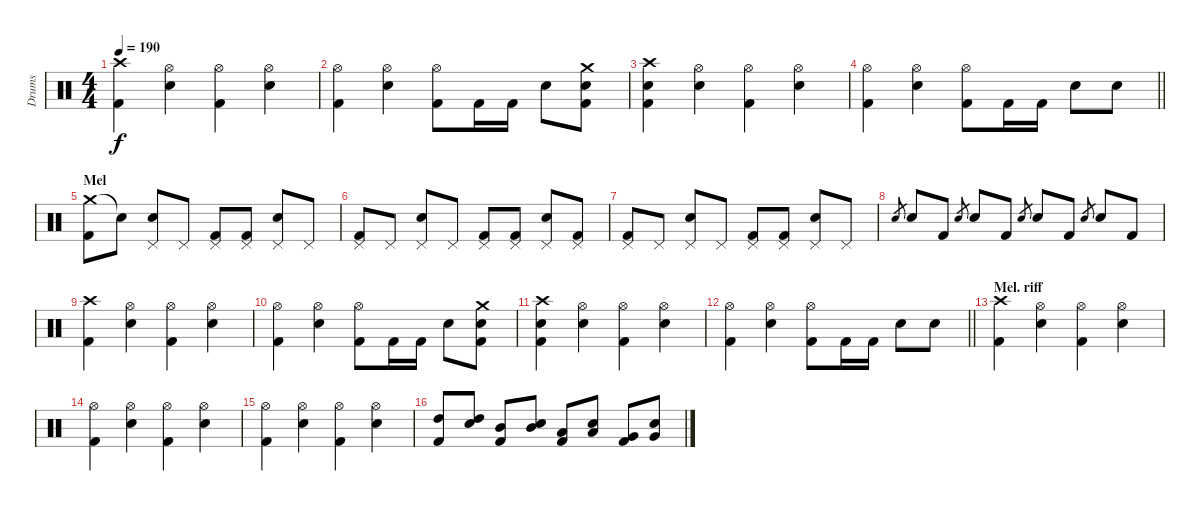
\track ("Drums" "Drums") {instrument percussion}
\staff {score}
\articulation defaults
\ts (4 4)
\tempo 190
\clef neutral
\ks c
("Crash high (hit)" "Kick (hit) 2").4{dy f} ("Hi-Hat (open)" "Snare (hit) 2").4 ("Hi-Hat (open)" "Kick (hit) 2").4 ("Hi-Hat (open)" "Snare (hit) 2").4 |
("Hi-Hat (open)" "Kick (hit) 2").4 ("Hi-Hat (open)" "Snare (hit) 2").4 ("Hi-Hat (open)" "Kick (hit) 2").8 "Kick (hit) 2".16 "Kick (hit) 2".16 "Snare (hit) 2".8 ("Crash medium (hit)" "Snare (hit) 2" "Kick (hit) 2").8 |
("Crash high (hit)" "Snare (hit) 2" "Kick (hit) 2").4 ("Hi-Hat (open)" "Snare (hit) 2").4 ("Hi-Hat (open)" "Kick (hit) 2").4 ("Hi-Hat (open)" "Snare (hit) 2").4 |
\barLineRight lightlight
("Hi-Hat (open)" "Kick (hit) 2").4 ("Hi-Hat (open)" "Snare (hit) 2").4 ("Hi-Hat (open)" "Kick (hit) 2").8 "Kick (hit) 2".16 "Kick (hit) 2".16 "Snare (hit) 2".8 "Snare (hit) 2".8 |
\section ("" "Mel")
("Crash medium (hit)" "Kick (hit) 2").8 "Snare (hit)"{t}.8 ("Pedal Hi-Hat (hit)" "Snare (hit) 2").8 "Pedal Hi-Hat (hit)".8 ("Pedal Hi-Hat (hit)" "Kick (hit) 2").8 ("Pedal Hi-Hat (hit)" "Kick (hit) 2").8 ("Pedal Hi-Hat (hit)" "Snare (hit) 2").8 "Pedal Hi-Hat (hit)".8 |
("Pedal Hi-Hat (hit)" "Kick (hit) 2").8 "Pedal Hi-Hat (hit)".8 ("Pedal Hi-Hat (hit)" "Snare (hit) 2").8 "Pedal Hi-Hat (hit)".8 ("Pedal Hi-Hat (hit)" "Kick (hit) 2").8 ("Pedal Hi-Hat (hit)" "Kick (hit) 2").8 ("Pedal Hi-Hat (hit)" "Snare (hit) 2").8 ("Pedal Hi-Hat (hit)" "Kick (hit) 2").8 |
("Pedal Hi-Hat (hit)" "Kick (hit) 2").8 "Pedal Hi-Hat (hit)".8 ("Pedal Hi-Hat (hit)" "Snare (hit) 2").8 "Pedal Hi-Hat (hit)".8 ("Pedal Hi-Hat (hit)" "Kick (hit) 2").8 ("Pedal Hi-Hat (hit)" "Kick (hit) 2").8 ("Pedal Hi-Hat (hit)" "Snare (hit) 2").8 "Pedal Hi-Hat (hit)".8 |
"Snare (hit) 2".8{gr} "Snare (hit) 2".8 "Kick (hit) 2".8 "Snare (hit) 2".8{gr} "Snare (hit) 2".8 "Kick (hit) 2".8 "Snare (hit) 2".8{gr} "Snare (hit) 2".8 "Kick (hit) 2".8 "Snare (hit) 2".8{gr} "Snare (hit) 2".8 "Kick (hit) 2".8 |
("Crash high (hit)" "Kick (hit) 2").4 ("Hi-Hat (open)" "Snare (hit) 2").4 ("Hi-Hat (open)" "Kick (hit) 2").4 ("Hi-Hat (open)" "Snare (hit) 2").4 |
("Hi-Hat (open)" "Kick (hit) 2").4 ("Hi-Hat (open)" "Snare (hit) 2").4 ("Hi-Hat (open)" "Kick (hit) 2").8 "Kick (hit) 2".16 "Kick (hit) 2".16 "Snare (hit) 2".8 ("Crash medium (hit)" "Snare (hit) 2" "Kick (hit) 2").8 |
("Crash high (hit)" "Snare (hit) 2" "Kick (hit) 2").4 ("Hi-Hat (open)" "Snare (hit) 2").4 ("Hi-Hat (open)" "Kick (hit) 2").4 ("Hi-Hat (open)" "Snare (hit) 2").4 |
\barLineRight lightlight
("Hi-Hat (open)" "Kick (hit) 2").4 ("Hi-Hat (open)" "Snare (hit) 2").4 ("Hi-Hat (open)" "Kick (hit) 2").8 "Kick (hit) 2".16 "Kick (hit) 2".16 "Snare (hit) 2".8 "Snare (hit) 2".8 |
\section ("" "Mel. riff")
("Crash high (hit)" "Kick (hit) 2").4 ("Hi-Hat (open)" "Snare (hit) 2").4 ("Hi-Hat (open)" "Kick (hit) 2").4 ("Hi-Hat (open)" "Snare (hit) 2").4 |
("Hi-Hat (open)" "Kick (hit) 2").4 ("Hi-Hat (open)" "Snare (hit) 2").4 ("Hi-Hat (open)" "Kick (hit) 2").4 ("Hi-Hat (open)" "Snare (hit) 2").4 |
("Hi-Hat (open)" "Kick (hit) 2").4 ("Hi-Hat (open)" "Snare (hit) 2").4 ("Hi-Hat (open)" "Kick (hit) 2").4 ("Hi-Hat (open)" "Snare (hit) 2").4 |
("High Tom (hit)" "Kick (hit) 2").8 ("High Tom (hit)" "Snare (hit) 2").8 ("Mid Tom (hit)" "Kick (hit) 2").8 ("Mid Tom (hit)" "Snare (hit) 2").8 ("Low Tom (hit)" "Kick (hit) 2").8 ("Low Tom (hit)" "Snare (hit) 2").8 ("Very Low Tom (hit)" "Kick (hit) 2").8 ("Very Low Tom (hit)" "Snare (hit) 2").8
